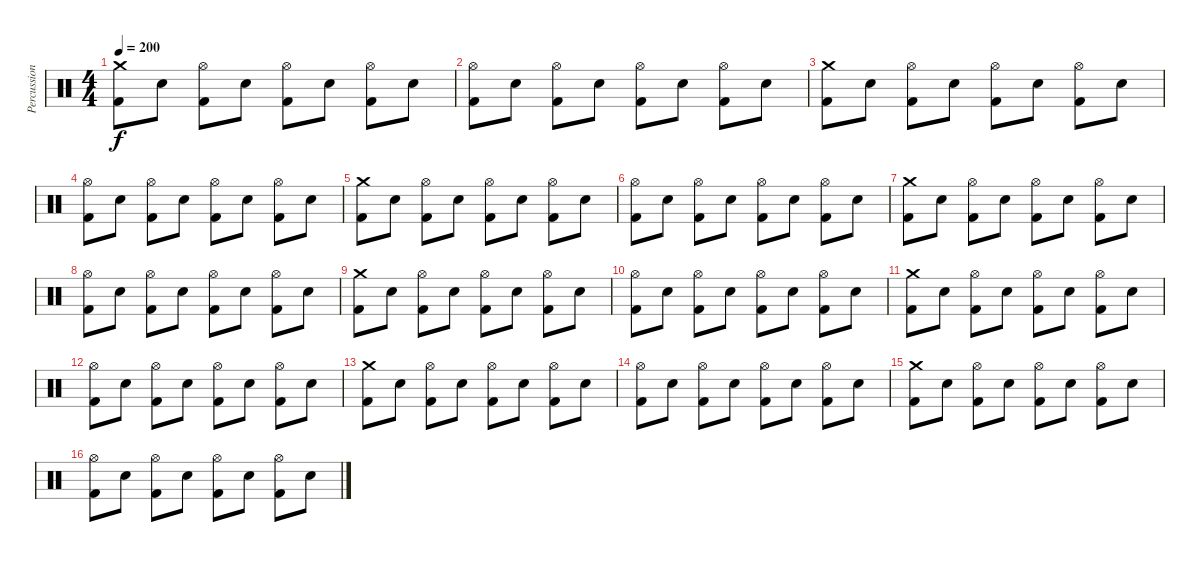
\track ("Percussion" "Percussion") {instrument percussion}
\staff {score}
\articulation defaults
\ts (4 4)
\tempo 200
\clef neutral
\ks c
("Crash medium (hit)" "Kick (hit) 2").8{dy f} "Snare (hit) 2".8 ("Hi-Hat (open)" "Kick (hit) 2").8 "Snare (hit) 2".8 ("Hi-Hat (open)" "Kick (hit) 2").8 "Snare (hit) 2".8 ("Hi-Hat (open)" "Kick (hit) 2").8 "Snare (hit) 2".8 |
("Hi-Hat (open)" "Kick (hit) 2").8 "Snare (hit) 2".8 ("Hi-Hat (open)" "Kick (hit) 2").8 "Snare (hit) 2".8 ("Hi-Hat (open)" "Kick (hit) 2").8 "Snare (hit) 2".8 ("Hi-Hat (open)" "Kick (hit) 2").8 "Snare (hit) 2".8 |
("Crash medium (hit)" "Kick (hit) 2").8 "Snare (hit) 2".8 ("Hi-Hat (open)" "Kick (hit) 2").8 "Snare (hit) 2".8 ("Hi-Hat (open)" "Kick (hit) 2").8 "Snare (hit) 2".8 ("Hi-Hat (open)" "Kick (hit) 2").8 "Snare (hit) 2".8 |
("Hi-Hat (open)" "Kick (hit) 2").8 "Snare (hit) 2".8 ("Hi-Hat (open)" "Kick (hit) 2").8 "Snare (hit) 2".8 ("Hi-Hat (open)" "Kick (hit) 2").8 "Snare (hit) 2".8 ("Hi-Hat (open)" "Kick (hit) 2").8 "Snare (hit) 2".8 |
("Crash medium (hit)" "Kick (hit) 2").8 "Snare (hit) 2".8 ("Hi-Hat (open)" "Kick (hit) 2").8 "Snare (hit) 2".8 ("Hi-Hat (open)" "Kick (hit) 2").8 "Snare (hit) 2".8 ("Hi-Hat (open)" "Kick (hit) 2").8 "Snare (hit) 2".8 |
("Hi-Hat (open)" "Kick (hit) 2").8 "Snare (hit) 2".8 ("Hi-Hat (open)" "Kick (hit) 2").8 "Snare (hit) 2".8 ("Hi-Hat (open)" "Kick (hit) 2").8 "Snare (hit) 2".8 ("Hi-Hat (open)" "Kick (hit) 2").8 "Snare (hit) 2".8 |
("Crash medium (hit)" "Kick (hit) 2").8 "Snare (hit) 2".8 ("Hi-Hat (open)" "Kick (hit) 2").8 "Snare (hit) 2".8 ("Hi-Hat (open)" "Kick (hit) 2").8 "Snare (hit) 2".8 ("Hi-Hat (open)" "Kick (hit) 2").8 "Snare (hit) 2".8 |
("Hi-Hat (open)" "Kick (hit) 2").8 "Snare (hit) 2".8 ("Hi-Hat (open)" "Kick (hit) 2").8 "Snare (hit) 2".8 ("Hi-Hat (open)" "Kick (hit) 2").8 "Snare (hit) 2".8 ("Hi-Hat (open)" "Kick (hit) 2").8 "Snare (hit) 2".8 |
("Crash medium (hit)" "Kick (hit) 2").8 "Snare (hit) 2".8 ("Hi-Hat (open)" "Kick (hit) 2").8 "Snare (hit) 2".8 ("Hi-Hat (open)" "Kick (hit) 2").8 "Snare (hit) 2".8 ("Hi-Hat (open)" "Kick (hit) 2").8 "Snare (hit) 2".8 |
("Hi-Hat (open)" "Kick (hit) 2").8 "Snare (hit) 2".8 ("Hi-Hat (open)" "Kick (hit) 2").8 "Snare (hit) 2".8 ("Hi-Hat (open)" "Kick (hit) 2").8 "Snare (hit) 2".8 ("Hi-Hat (open)" "Kick (hit) 2").8 "Snare (hit) 2".8 |
("Crash medium (hit)" "Kick (hit) 2").8 "Snare (hit) 2".8 ("Hi-Hat (open)" "Kick (hit) 2").8 "Snare (hit) 2".8 ("Hi-Hat (open)" "Kick (hit) 2").8 "Snare (hit) 2".8 ("Hi-Hat (open)" "Kick (hit) 2").8 "Snare (hit) 2".8 |
("Hi-Hat (open)" "Kick (hit) 2").8 "Snare (hit) 2".8 ("Hi-Hat (open)" "Kick (hit) 2").8 "Snare (hit) 2".8 ("Hi-Hat (open)" "Kick (hit) 2").8 "Snare (hit) 2".8 ("Hi-Hat (open)" "Kick (hit) 2").8 "Snare (hit) 2".8 |
("Crash medium (hit)" "Kick (hit) 2").8 "Snare (hit) 2".8 ("Hi-Hat (open)" "Kick (hit) 2").8 "Snare (hit) 2".8 ("Hi-Hat (open)" "Kick (hit) 2").8 "Snare (hit) 2".8 ("Hi-Hat (open)" "Kick (hit) 2").8 "Snare (hit) 2".8 |
("Hi-Hat (open)" "Kick (hit) 2").8 "Snare (hit) 2".8 ("Hi-Hat (open)" "Kick (hit) 2").8 "Snare (hit) 2".8 ("Hi-Hat (open)" "Kick (hit) 2").8 "Snare (hit) 2".8 ("Hi-Hat (open)" "Kick (hit) 2").8 "Snare (hit) 2".8 |
("Crash medium (hit)" "Kick (hit) 2").8 "Snare (hit) 2".8 ("Hi-Hat (open)" "Kick (hit) 2").8 "Snare (hit) 2".8 ("Hi-Hat (open)" "Kick (hit) 2").8 "Snare (hit) 2".8 ("Hi-Hat (open)" "Kick (hit) 2").8 "Snare (hit) 2".8 |
("Hi-Hat (open)" "Kick (hit) 2").8 "Snare (hit) 2".8 ("Hi-Hat (open)" "Kick (hit) 2").8 "Snare (hit) 2".8 ("Hi-Hat (open)" "Kick (hit) 2").8 "Snare (hit) 2".8 ("Hi-Hat (open)" "Kick (hit) 2").8 "Snare (hit) 2".8
